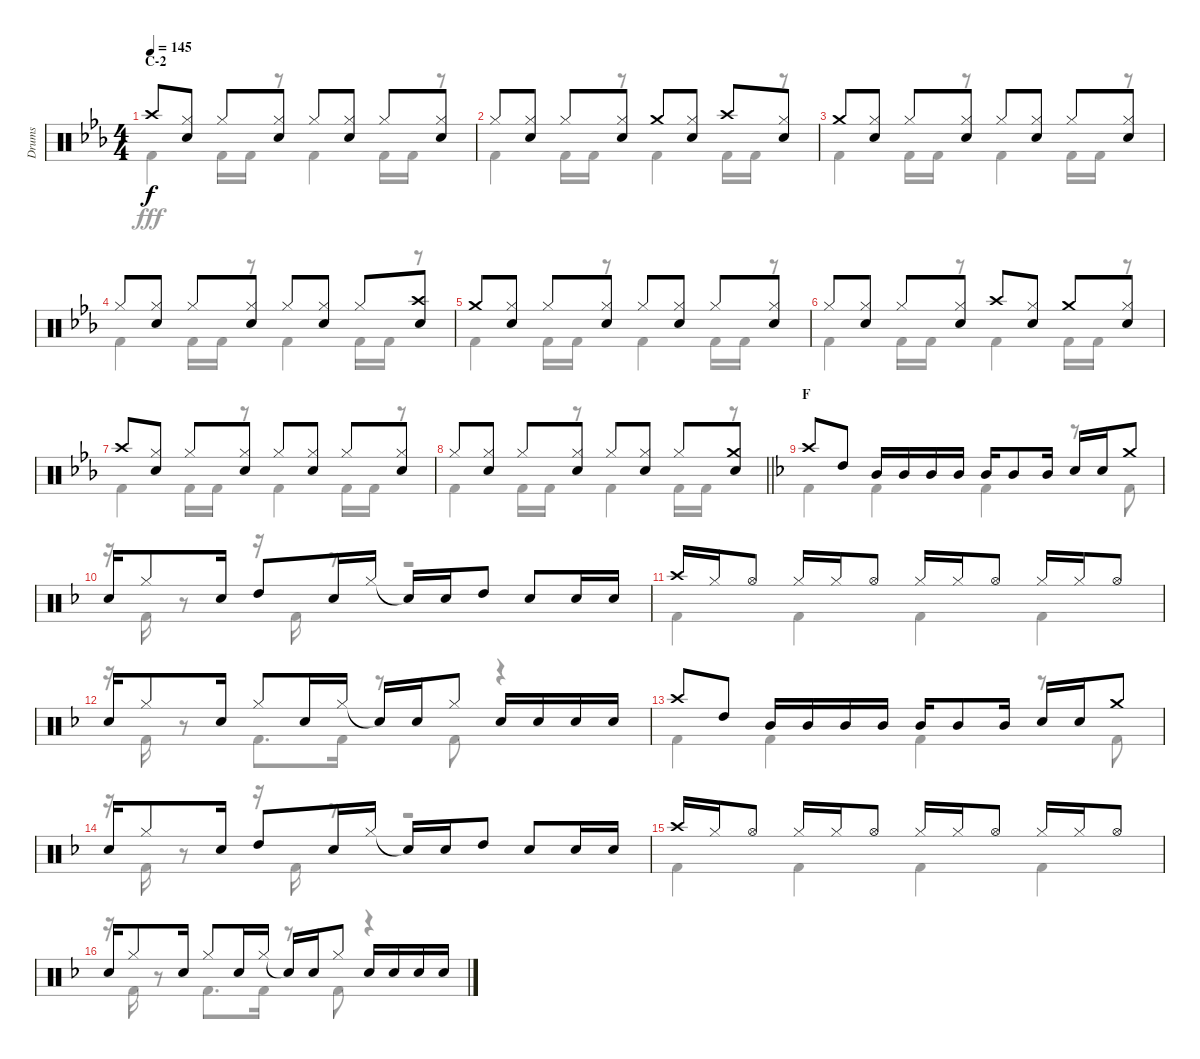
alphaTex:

\track ("Drums" "Drums") {instrument percussion}
\staff {score}
\articulation defaults
\voice
\ts (4 4)
\section ("" "C-2")
\tempo 145
\clef neutral
\ks eb "Crash high (hit)".8{dy f}
("Hi-Hat (closed)" "Snare (hit) 2").8 "Hi-Hat (closed)".8 ("Hi-Hat (closed)" "Snare (hit) 2").8 "Hi-Hat (closed)".8 ("Hi-Hat (closed)" "Snare (hit) 2").8 "Hi-Hat (closed)".8 ("Hi-Hat (closed)" "Snare (hit) 2").8 |
"Hi-Hat (closed)".8 ("Hi-Hat (closed)" "Snare (hit) 2").8 "Hi-Hat (closed)".8 ("Hi-Hat (closed)" "Snare (hit) 2").8 "Crash medium (hit)".8 ("Hi-Hat (closed)" "Snare (hit) 2").8 "Crash high (hit)".8 ("Hi-Hat (closed)" "Snare (hit) 2").8 |
"Crash medium (hit)".8 ("Hi-Hat (closed)" "Snare (hit) 2").8 "Hi-Hat (closed)".8 ("Hi-Hat (closed)" "Snare (hit) 2").8 "Hi-Hat (closed)".8 ("Hi-Hat (closed)" "Snare (hit) 2").8 "Hi-Hat (closed)".8 ("Hi-Hat (closed)" "Snare (hit) 2").8 |
"Hi-Hat (closed)".8 ("Hi-Hat (closed)" "Snare (hit) 2").8 "Hi-Hat (closed)".8 ("Hi-Hat (closed)" "Snare (hit) 2").8 "Hi-Hat (closed)".8 ("Hi-Hat (closed)" "Snare (hit) 2").8 "Hi-Hat (closed)".8 ("Crash high (hit)" "Snare (hit) 2").8 |
"Crash medium (hit)".8 ("Hi-Hat (closed)" "Snare (hit) 2").8 "Hi-Hat (closed)".8 ("Hi-Hat (closed)" "Snare (hit) 2").8 "Hi-Hat (closed)".8 ("Hi-Hat (closed)" "Snare (hit) 2").8 "Hi-Hat (closed)".8 ("Hi-Hat (closed)" "Snare (hit) 2").8 |
"Hi-Hat (closed)".8 ("Hi-Hat (closed)" "Snare (hit) 2").8 "Hi-Hat (closed)".8 ("Hi-Hat (closed)" "Snare (hit) 2").8 "Crash high (hit)".8 ("Hi-Hat (closed)" "Snare (hit) 2").8 "Crash medium (hit)".8 ("Hi-Hat (closed)" "Snare (hit) 2").8 |
"Crash high (hit)".8 ("Hi-Hat (closed)" "Snare (hit) 2").8 "Hi-Hat (closed)".8 ("Hi-Hat (closed)" "Snare (hit) 2").8 "Hi-Hat (closed)".8 ("Hi-Hat (closed)" "Snare (hit) 2").8 "Hi-Hat (closed)".8 ("Hi-Hat (closed)" "Snare (hit) 2").8 |
\barLineRight lightlight "Hi-Hat (closed)".8
("Hi-Hat (closed)" "Snare (hit) 2").8 "Hi-Hat (closed)".8 ("Hi-Hat (closed)" "Snare (hit) 2").8 "Hi-Hat (closed)".8 ("Hi-Hat (closed)" "Snare (hit) 2").8 "Hi-Hat (closed)".8 ("Crash medium (hit)" "Snare (hit) 2").8 |
\section ("" "F")
\ks f "Crash high (hit)".8 "High Tom (hit)".8 "Mid Tom (hit)".16 "Mid Tom (hit)".16 "Mid Tom (hit)".16 "Mid Tom (hit)".16 "Mid Tom (hit)".16 "Mid Tom (hit)".8 "Mid Tom (hit)".16 "Snare (hit) 2".16 "Snare (hit) 2".16 "Crash medium (hit)".8
|
"Snare (hit) 2".16 "Hi-Hat (closed)".8 "Snare (hit) 2".16 "High Tom (hit)".8 "Snare (hit) 2".16 "Hi-Hat (closed)".16 "Snare (hit)"{t}.16 "Snare (hit) 2".16 "High Tom (hit)".8 "Snare (hit) 2".8 "Snare (hit) 2".16 "Snare (hit) 2".16 |
"Crash high (hit)".16 "Hi-Hat (closed)".16 "Hi-Hat (open)".8 "Hi-Hat (closed)".16 "Hi-Hat (closed)".16 "Hi-Hat (open)".8 "Hi-Hat (closed)".16 "Hi-Hat (closed)".16 "Hi-Hat (open)".8 "Hi-Hat (closed)".16 "Hi-Hat (closed)".16 "Hi-Hat (open)".8 |
"Snare (hit) 2".16 "Hi-Hat (closed)".8 "Snare (hit) 2".16 "Hi-Hat (closed)".8 "Snare (hit) 2".16 "Hi-Hat (closed)".16 "Snare (hit)"{t}.16 "Snare (hit) 2".16 "Hi-Hat (closed)".8 "Snare (hit) 2".16 "Snare (hit) 2".16 "Snare (hit) 2".16 "Snare (hit) 2".16 |
"Crash high (hit)".8 "High Tom (hit)".8 "Mid Tom (hit)".16 "Mid Tom (hit)".16 "Mid Tom (hit)".16 "Mid Tom (hit)".16 "Mid Tom (hit)".16 "Mid Tom (hit)".8 "Mid Tom (hit)".16 "Snare (hit) 2".16 "Snare (hit) 2".16 "Crash medium (hit)".8 |
"Snare (hit) 2".16 "Hi-Hat (closed)".8 "Snare (hit) 2".16 "High Tom (hit)".8 "Snare (hit) 2".16 "Hi-Hat (closed)".16 "Snare (hit)"{t}.16 "Snare (hit) 2".16 "High Tom (hit)".8 "Snare (hit) 2".8 "Snare (hit) 2".16 "Snare (hit) 2".16 |
"Crash high (hit)".16 "Hi-Hat (closed)".16 "Hi-Hat (open)".8 "Hi-Hat (closed)".16 "Hi-Hat (closed)".16 "Hi-Hat (open)".8 "Hi-Hat (closed)".16 "Hi-Hat (closed)".16 "Hi-Hat (open)".8 "Hi-Hat (closed)".16 "Hi-Hat (closed)".16 "Hi-Hat (open)".8 |
"Snare (hit) 2".16 "Hi-Hat (closed)".8 "Snare (hit) 2".16 "Hi-Hat (closed)".8 "Snare (hit) 2".16 "Hi-Hat (closed)".16 "Snare (hit)"{t}.16 "Snare (hit) 2".16 "Hi-Hat (closed)".8 "Snare (hit) 2".16 "Snare (hit) 2".16 "Snare (hit) 2".16 "Snare (hit) 2".16
\voice
\clef neutral
\ottava regular
\simile none
\ks eb "Kick (hit) 2".4{dy fff} "Kick (hit) 2".16 "Kick (hit) 2".16
r.8 "Kick (hit) 2".4 "Kick (hit) 2".16 "Kick (hit) 2".16 r.8 |
"Kick (hit) 2".4 "Kick (hit) 2".16 "Kick (hit) 2".16 r.8 "Kick (hit) 2".4 "Kick (hit) 2".16 "Kick (hit) 2".16 r.8 |
"Kick (hit) 2".4 "Kick (hit) 2".16 "Kick (hit) 2".16 r.8 "Kick (hit) 2".4 "Kick (hit) 2".16 "Kick (hit) 2".16 r.8 |
"Kick (hit) 2".4 "Kick (hit) 2".16 "Kick (hit) 2".16 r.8 "Kick (hit) 2".4 "Kick (hit) 2".16 "Kick (hit) 2".16 r.8 |
"Kick (hit) 2".4 "Kick (hit) 2".16 "Kick (hit) 2".16 r.8 "Kick (hit) 2".4 "Kick (hit) 2".16 "Kick (hit) 2".16 r.8 |
"Kick (hit) 2".4 "Kick (hit) 2".16 "Kick (hit) 2".16 r.8 "Kick (hit) 2".4 "Kick (hit) 2".16 "Kick (hit) 2".16 r.8 |
"Kick (hit) 2".4 "Kick (hit) 2".16 "Kick (hit) 2".16 r.8 "Kick (hit) 2".4 "Kick (hit) 2".16 "Kick (hit) 2".16 r.8 |
\barLineRight lightlight "Kick (hit) 2".4 "Kick (hit) 2".16 "Kick (hit) 2".16
r.8 "Kick (hit) 2".4 "Kick (hit) 2".16 "Kick (hit) 2".16 r.8 |
\ks f "Kick (hit) 2".4 "Kick (hit) 2".4 "Kick (hit) 2".4
r.8 "Kick (hit) 2".8 |
r.16 "Kick (hit) 2".16 r.8 r.16 "Kick (hit) 2".16 r.8 r.2 |
"Kick (hit) 2".4 "Kick (hit) 2".4 "Kick (hit) 2".4 "Kick (hit) 2".4 |
r.16 "Kick (hit) 2".16 r.8 "Kick (hit) 2".8{d} "Kick (hit) 2".16 r.8 "Kick (hit) 2".8 r.4 |
"Kick (hit) 2".4 "Kick (hit) 2".4 "Kick (hit) 2".4 r.8 "Kick (hit) 2".8 |
r.16 "Kick (hit) 2".16 r.8 r.16 "Kick (hit) 2".16 r.8 r.2 |
"Kick (hit) 2".4 "Kick (hit) 2".4 "Kick (hit) 2".4 "Kick (hit) 2".4 |
r.16 "Kick (hit) 2".16 r.8 "Kick (hit) 2".8{d} "Kick (hit) 2".16 r.8 "Kick (hit) 2".8 r.4
